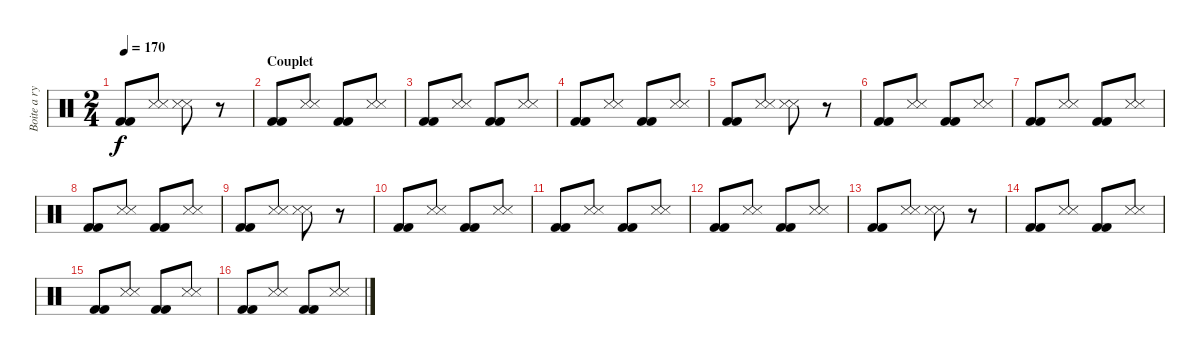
\track ("Boite a rythme" "Boite a ry") {instrument percussion}
\staff {score}
\articulation defaults
\ts (2 4)
\tempo 170
\clef neutral
\ks c
("Kick (hit) 2" "Kick (hit) 2").8{dy f} ("Metronome (hit)" "Metronome (hit)").8 ("Metronome (hit)" "Metronome (hit)").8 r.8 |
\section ("" "Couplet")
("Kick (hit) 2" "Kick (hit) 2").8 ("Metronome (hit)" "Metronome (hit)").8 ("Kick (hit) 2" "Kick (hit) 2").8 ("Metronome (hit)" "Metronome (hit)").8 |
("Kick (hit) 2" "Kick (hit) 2").8 ("Metronome (hit)" "Metronome (hit)").8 ("Kick (hit) 2" "Kick (hit) 2").8 ("Metronome (hit)" "Metronome (hit)").8 |
("Kick (hit) 2" "Kick (hit) 2").8 ("Metronome (hit)" "Metronome (hit)").8 ("Kick (hit) 2" "Kick (hit) 2").8 ("Metronome (hit)" "Metronome (hit)").8 |
("Kick (hit) 2" "Kick (hit) 2").8 ("Metronome (hit)" "Metronome (hit)").8 ("Metronome (hit)" "Metronome (hit)").8 r.8 |
("Kick (hit) 2" "Kick (hit) 2").8 ("Metronome (hit)" "Metronome (hit)").8 ("Kick (hit) 2" "Kick (hit) 2").8 ("Metronome (hit)" "Metronome (hit)").8 |
("Kick (hit) 2" "Kick (hit) 2").8 ("Metronome (hit)" "Metronome (hit)").8 ("Kick (hit) 2" "Kick (hit) 2").8 ("Metronome (hit)" "Metronome (hit)").8 |
("Kick (hit) 2" "Kick (hit) 2").8 ("Metronome (hit)" "Metronome (hit)").8 ("Kick (hit) 2" "Kick (hit) 2").8 ("Metronome (hit)" "Metronome (hit)").8 |
("Kick (hit) 2" "Kick (hit) 2").8 ("Metronome (hit)" "Metronome (hit)").8 ("Metronome (hit)" "Metronome (hit)").8 r.8 |
("Kick (hit) 2" "Kick (hit) 2").8 ("Metronome (hit)" "Metronome (hit)").8 ("Kick (hit) 2" "Kick (hit) 2").8 ("Metronome (hit)" "Metronome (hit)").8 |
("Kick (hit) 2" "Kick (hit) 2").8 ("Metronome (hit)" "Metronome (hit)").8 ("Kick (hit) 2" "Kick (hit) 2").8 ("Metronome (hit)" "Metronome (hit)").8 |
("Kick (hit) 2" "Kick (hit) 2").8 ("Metronome (hit)" "Metronome (hit)").8 ("Kick (hit) 2" "Kick (hit) 2").8 ("Metronome (hit)" "Metronome (hit)").8 |
("Kick (hit) 2" "Kick (hit) 2").8 ("Metronome (hit)" "Metronome (hit)").8 ("Metronome (hit)" "Metronome (hit)").8 r.8 |
("Kick (hit) 2" "Kick (hit) 2").8 ("Metronome (hit)" "Metronome (hit)").8 ("Kick (hit) 2" "Kick (hit) 2").8 ("Metronome (hit)" "Metronome (hit)").8 |
("Kick (hit) 2" "Kick (hit) 2").8 ("Metronome (hit)" "Metronome (hit)").8 ("Kick (hit) 2" "Kick (hit) 2").8 ("Metronome (hit)" "Metronome (hit)").8 |
("Kick (hit) 2" "Kick (hit) 2").8 ("Metronome (hit)" "Metronome (hit)").8 ("Kick (hit) 2" "Kick (hit) 2").8 ("Metronome (hit)" "Metronome (hit)").8
